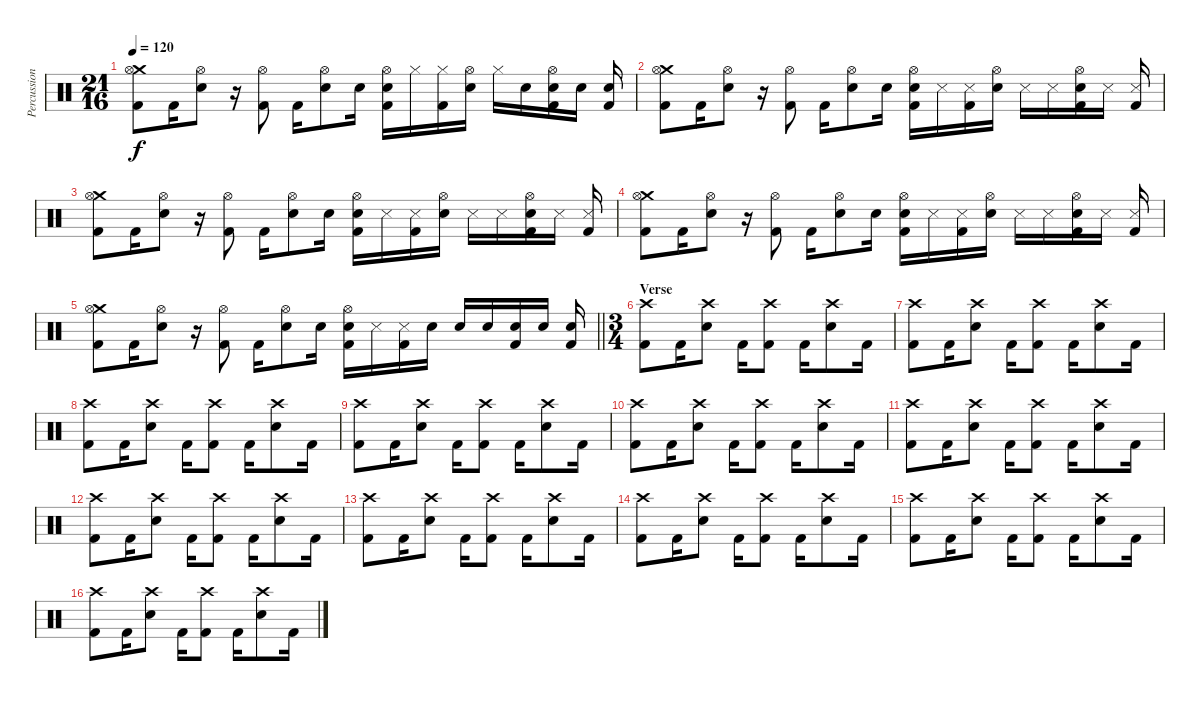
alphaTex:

\track ("Percussion" "Percussion") {instrument percussion}
\staff {score}
\articulation defaults
\ts (21 16)
\tempo 120
\clef neutral
\ks c
("Crash medium (hit)" "Hi-Hat (open)" "Kick (hit) 2").8{dy f} "Kick (hit) 2".16 ("Hi-Hat (open)" "Snare (hit) 2").8 r.16 ("Hi-Hat (open)" "Kick (hit) 2").8 "Kick (hit) 2".16 ("Hi-Hat (open)" "Snare (hit) 2").8 "Snare (hit) 2".16 ("Hi-Hat (open)" "Snare (hit) 2" "Kick (hit) 2").16 "Hi-Hat (closed)".16 ("Hi-Hat (closed)" "Kick (hit) 2").16 ("Hi-Hat (open)" "Snare (hit) 2").16 "Hi-Hat (closed)".16 "Snare (hit) 2".16 ("Hi-Hat (open)" "Snare (hit) 2" "Kick (hit) 2").16 "Snare (hit) 2".16 ("Snare (hit) 2" "Kick (hit) 2").16 |
("Crash medium (hit)" "Hi-Hat (open)" "Kick (hit) 2").8 "Kick (hit) 2".16 ("Hi-Hat (open)" "Snare (hit) 2").8 r.16 ("Hi-Hat (open)" "Kick (hit) 2").8 "Kick (hit) 2".16 ("Hi-Hat (open)" "Snare (hit) 2").8 "Snare (hit) 2".16 ("Hi-Hat (open)" "Snare (hit) 2" "Kick (hit) 2").16 "Snare (side stick) 3".16 ("Snare (side stick) 3" "Kick (hit) 2").16 ("Hi-Hat (open)" "Snare (hit) 2").16 "Snare (side stick) 3".16 "Snare (side stick) 3".16 ("Hi-Hat (open)" "Snare (hit) 2" "Kick (hit) 2").16 "Snare (side stick) 3".16 ("Snare (side stick) 3" "Kick (hit) 2").16 |
("Crash medium (hit)" "Hi-Hat (open)" "Kick (hit) 2").8 "Kick (hit) 2".16 ("Hi-Hat (open)" "Snare (hit) 2").8 r.16 ("Hi-Hat (open)" "Kick (hit) 2").8 "Kick (hit) 2".16 ("Hi-Hat (open)" "Snare (hit) 2").8 "Snare (hit) 2".16 ("Hi-Hat (open)" "Snare (hit) 2" "Kick (hit) 2").16 "Snare (side stick) 3".16 ("Snare (side stick) 3" "Kick (hit) 2").16 ("Hi-Hat (open)" "Snare (hit) 2").16 "Snare (side stick) 3".16 "Snare (side stick) 3".16 ("Hi-Hat (open)" "Snare (hit) 2" "Kick (hit) 2").16 "Snare (side stick) 3".16 ("Snare (side stick) 3" "Kick (hit) 2").16 |
("Crash medium (hit)" "Hi-Hat (open)" "Kick (hit) 2").8 "Kick (hit) 2".16 ("Hi-Hat (open)" "Snare (hit) 2").8 r.16 ("Hi-Hat (open)" "Kick (hit) 2").8 "Kick (hit) 2".16 ("Hi-Hat (open)" "Snare (hit) 2").8 "Snare (hit) 2".16 ("Hi-Hat (open)" "Snare (hit) 2" "Kick (hit) 2").16 "Snare (side stick) 3".16 ("Snare (side stick) 3" "Kick (hit) 2").16 ("Hi-Hat (open)" "Snare (hit) 2").16 "Snare (side stick) 3".16 "Snare (side stick) 3".16 ("Hi-Hat (open)" "Snare (hit) 2" "Kick (hit) 2").16 "Snare (side stick) 3".16 ("Snare (side stick) 3" "Kick (hit) 2").16 |
\barLineRight lightlight
("Crash medium (hit)" "Hi-Hat (open)" "Kick (hit) 2").8 "Kick (hit) 2".16 ("Hi-Hat (open)" "Snare (hit) 2").8 r.16 ("Hi-Hat (open)" "Kick (hit) 2").8 "Kick (hit) 2".16 ("Hi-Hat (open)" "Snare (hit) 2").8 "Snare (hit) 2".16 ("Hi-Hat (open)" "Snare (hit) 2" "Kick (hit) 2").16 "Snare (side stick) 3".16 ("Snare (side stick) 3" "Kick (hit) 2").16 "Snare (hit) 2".16 "Snare (hit) 2".16 "Snare (hit) 2".16 ("Snare (hit) 2" "Kick (hit) 2").16 "Snare (hit) 2".16 ("Snare (hit) 2" "Kick (hit) 2").16 |
\ts (3 4)
\section ("" "Verse")
("Crash high (hit)" "Kick (hit) 2").8 "Kick (hit) 2".16 ("Crash high (hit)" "Snare (hit) 2").8 "Kick (hit) 2".16 ("Crash high (hit)" "Kick (hit) 2").8 "Kick (hit) 2".16 ("Crash high (hit)" "Snare (hit) 2").8 "Kick (hit) 2".16 |
("Crash high (hit)" "Kick (hit) 2").8 "Kick (hit) 2".16 ("Crash high (hit)" "Snare (hit) 2").8 "Kick (hit) 2".16 ("Crash high (hit)" "Kick (hit) 2").8 "Kick (hit) 2".16 ("Crash high (hit)" "Snare (hit) 2").8 "Kick (hit) 2".16 |
("Crash high (hit)" "Kick (hit) 2").8 "Kick (hit) 2".16 ("Crash high (hit)" "Snare (hit) 2").8 "Kick (hit) 2".16 ("Crash high (hit)" "Kick (hit) 2").8 "Kick (hit) 2".16 ("Crash high (hit)" "Snare (hit) 2").8 "Kick (hit) 2".16 |
("Crash high (hit)" "Kick (hit) 2").8 "Kick (hit) 2".16 ("Crash high (hit)" "Snare (hit) 2").8 "Kick (hit) 2".16 ("Crash high (hit)" "Kick (hit) 2").8 "Kick (hit) 2".16 ("Crash high (hit)" "Snare (hit) 2").8 "Kick (hit) 2".16 |
("Crash high (hit)" "Kick (hit) 2").8 "Kick (hit) 2".16 ("Crash high (hit)" "Snare (hit) 2").8 "Kick (hit) 2".16 ("Crash high (hit)" "Kick (hit) 2").8 "Kick (hit) 2".16 ("Crash high (hit)" "Snare (hit) 2").8 "Kick (hit) 2".16 |
("Crash high (hit)" "Kick (hit) 2").8 "Kick (hit) 2".16 ("Crash high (hit)" "Snare (hit) 2").8 "Kick (hit) 2".16 ("Crash high (hit)" "Kick (hit) 2").8 "Kick (hit) 2".16 ("Crash high (hit)" "Snare (hit) 2").8 "Kick (hit) 2".16 |
("Crash high (hit)" "Kick (hit) 2").8 "Kick (hit) 2".16 ("Crash high (hit)" "Snare (hit) 2").8 "Kick (hit) 2".16 ("Crash high (hit)" "Kick (hit) 2").8 "Kick (hit) 2".16 ("Crash high (hit)" "Snare (hit) 2").8 "Kick (hit) 2".16 |
("Crash high (hit)" "Kick (hit) 2").8 "Kick (hit) 2".16 ("Crash high (hit)" "Snare (hit) 2").8 "Kick (hit) 2".16 ("Crash high (hit)" "Kick (hit) 2").8 "Kick (hit) 2".16 ("Crash high (hit)" "Snare (hit) 2").8 "Kick (hit) 2".16 |
("Crash high (hit)" "Kick (hit) 2").8 "Kick (hit) 2".16 ("Crash high (hit)" "Snare (hit) 2").8 "Kick (hit) 2".16 ("Crash high (hit)" "Kick (hit) 2").8 "Kick (hit) 2".16 ("Crash high (hit)" "Snare (hit) 2").8 "Kick (hit) 2".16 |
("Crash high (hit)" "Kick (hit) 2").8 "Kick (hit) 2".16 ("Crash high (hit)" "Snare (hit) 2").8 "Kick (hit) 2".16 ("Crash high (hit)" "Kick (hit) 2").8 "Kick (hit) 2".16 ("Crash high (hit)" "Snare (hit) 2").8 "Kick (hit) 2".16 |
("Crash high (hit)" "Kick (hit) 2").8 "Kick (hit) 2".16 ("Crash high (hit)" "Snare (hit) 2").8 "Kick (hit) 2".16 ("Crash high (hit)" "Kick (hit) 2").8 "Kick (hit) 2".16 ("Crash high (hit)" "Snare (hit) 2").8 "Kick (hit) 2".16
